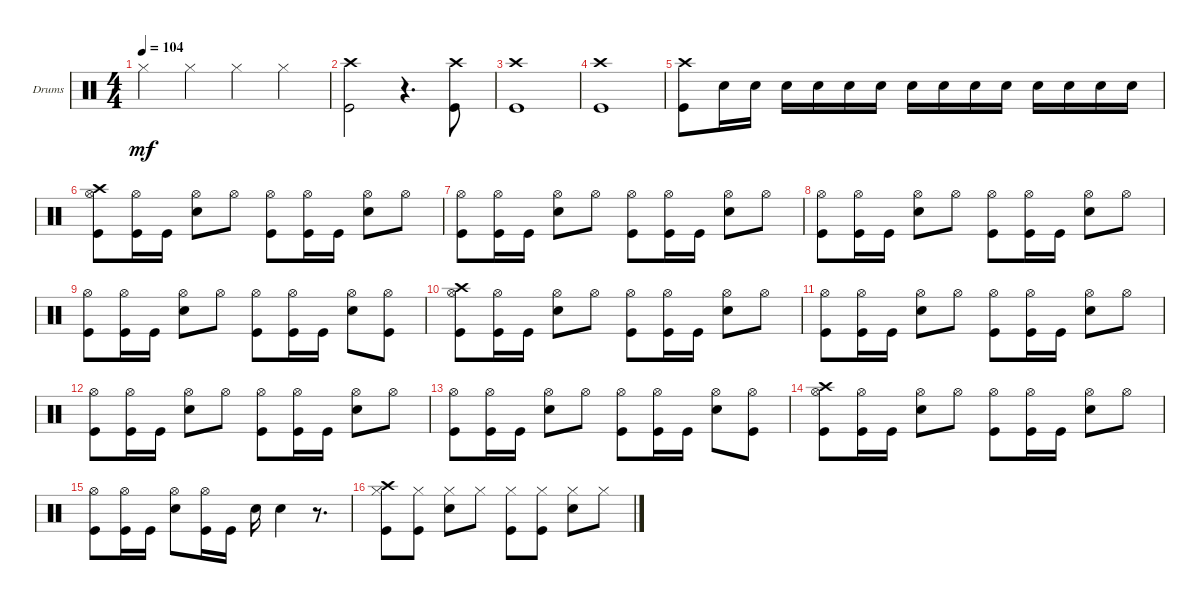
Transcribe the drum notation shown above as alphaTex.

\defaultSystemsLayout 4
\bracketExtendMode groupsimilarinstruments
\firstSystemTrackNameOrientation horizontal
\otherSystemsTrackNameOrientation horizontal
\track ("Drum" "Drums") {instrument percussion}
\staff {score}
\articulation defaults
\ts (4 4)
\tempo 104
\clef neutral
\ks c "Hi-Hat (closed)".4{dy mf} "Hi-Hat (closed)".4 "Hi-Hat (closed)".4 "Hi-Hat (closed)".4
|
("Crash high (hit)" "Kick (hit)").2 r.4{d} ("Kick (hit)" "Crash high (hit)").8 |
("Kick (hit)" "Crash high (hit)").1 |
("Kick (hit)" "Crash high (hit)").1 |
("Crash high (hit)" "Kick (hit)").8 "Snare (hit) 2".16 "Snare (hit) 2".16 "Snare (hit) 2".16 "Snare (hit) 2".16 "Snare (hit) 2".16 "Snare (hit) 2".16 "Snare (hit) 2".16 "Snare (hit) 2".16 "Snare (hit) 2".16 "Snare (hit) 2".16 "Snare (hit) 2".16 "Snare (hit) 2".16 "Snare (hit) 2".16 "Snare (hit) 2".16 |
("Kick (hit)" "Hi-Hat (open)" "Crash high (hit)").8 ("Kick (hit)" "Hi-Hat (open)").16 "Kick (hit)".16 ("Snare (hit) 2" "Hi-Hat (open)").8 "Hi-Hat (open)".8 ("Kick (hit)" "Hi-Hat (open)").8 ("Kick (hit)" "Hi-Hat (open)").16 "Kick (hit)".16 ("Hi-Hat (open)" "Snare (hit) 2").8 "Hi-Hat (open)".8 |
("Hi-Hat (open)" "Kick (hit)").8 ("Hi-Hat (open)" "Kick (hit)").16 "Kick (hit)".16 ("Hi-Hat (open)" "Snare (hit) 2").8 "Hi-Hat (open)".8 ("Hi-Hat (open)" "Kick (hit)").8 ("Kick (hit)" "Hi-Hat (open)").16 "Kick (hit)".16 ("Snare (hit) 2" "Hi-Hat (open)").8 "Hi-Hat (open)".8 |
("Kick (hit)" "Hi-Hat (open)").8 ("Kick (hit)" "Hi-Hat (open)").16 "Kick (hit)".16 ("Snare (hit) 2" "Hi-Hat (open)").8 "Hi-Hat (open)".8 ("Kick (hit)" "Hi-Hat (open)").8 ("Hi-Hat (open)" "Kick (hit)").16 "Kick (hit)".16 ("Snare (hit) 2" "Hi-Hat (open)").8 "Hi-Hat (open)".8 |
("Kick (hit)" "Hi-Hat (open)").8 ("Hi-Hat (open)" "Kick (hit)").16 "Kick (hit)".16 ("Snare (hit) 2" "Hi-Hat (open)").8 "Hi-Hat (open)".8 ("Hi-Hat (open)" "Kick (hit)").8 ("Hi-Hat (open)" "Kick (hit)").16 "Kick (hit)".16 ("Hi-Hat (open)" "Snare (hit) 2").8 ("Kick (hit)" "Hi-Hat (open)").8 |
("Kick (hit)" "Crash high (hit)" "Hi-Hat (open)").8 ("Kick (hit)" "Hi-Hat (open)").16 "Kick (hit)".16 ("Hi-Hat (open)" "Snare (hit) 2").8 "Hi-Hat (open)".8 ("Hi-Hat (open)" "Kick (hit)").8 ("Kick (hit)" "Hi-Hat (open)").16 "Kick (hit)".16 ("Snare (hit) 2" "Hi-Hat (open)").8 "Hi-Hat (open)".8 |
("Kick (hit)" "Hi-Hat (open)").8 ("Kick (hit)" "Hi-Hat (open)").16 "Kick (hit)".16 ("Hi-Hat (open)" "Snare (hit) 2").8 "Hi-Hat (open)".8 ("Kick (hit)" "Hi-Hat (open)").8 ("Kick (hit)" "Hi-Hat (open)").16 "Kick (hit)".16 ("Hi-Hat (open)" "Snare (hit) 2").8 "Hi-Hat (open)".8 |
("Kick (hit)" "Hi-Hat (open)").8 ("Hi-Hat (open)" "Kick (hit)").16 "Kick (hit)".16 ("Hi-Hat (open)" "Snare (hit) 2").8 "Hi-Hat (open)".8 ("Hi-Hat (open)" "Kick (hit)").8 ("Hi-Hat (open)" "Kick (hit)").16 "Kick (hit)".16 ("Snare (hit) 2" "Hi-Hat (open)").8 "Hi-Hat (open)".8 |
("Kick (hit)" "Hi-Hat (open)").8 ("Kick (hit)" "Hi-Hat (open)").16 "Kick (hit)".16 ("Hi-Hat (open)" "Snare (hit) 2").8 "Hi-Hat (open)".8 ("Kick (hit)" "Hi-Hat (open)").8 ("Hi-Hat (open)" "Kick (hit)").16 "Kick (hit)".16 ("Hi-Hat (open)" "Snare (hit) 2").8 ("Kick (hit)" "Hi-Hat (open)").8 |
("Kick (hit)" "Crash high (hit)" "Hi-Hat (open)").8 ("Hi-Hat (open)" "Kick (hit)").16 "Kick (hit)".16 ("Hi-Hat (open)" "Snare (hit) 2").8 "Hi-Hat (open)".8 ("Kick (hit)" "Hi-Hat (open)").8 ("Hi-Hat (open)" "Kick (hit)").16 "Kick (hit)".16 ("Hi-Hat (open)" "Snare (hit) 2").8 "Hi-Hat (open)".8 |
("Hi-Hat (open)" "Kick (hit)").8 ("Kick (hit)" "Hi-Hat (open)").16 "Kick (hit)".16 ("Hi-Hat (open)" "Snare (hit) 2").8 ("Hi-Hat (open)" "Kick (hit)").16 "Kick (hit)".16 "Snare (hit) 2".16 "Snare (hit) 2".4 r.8{d} |
("Kick (hit)" "Hi-Hat (closed)" "Crash high (hit)").8 ("Hi-Hat (closed)" "Kick (hit)").8 ("Hi-Hat (closed)" "Snare (hit) 2").8 "Hi-Hat (closed)".8 ("Hi-Hat (closed)" "Kick (hit)").8 ("Kick (hit)" "Hi-Hat (closed)").8 ("Hi-Hat (closed)" "Snare (hit) 2").8 "Hi-Hat (closed)".8
